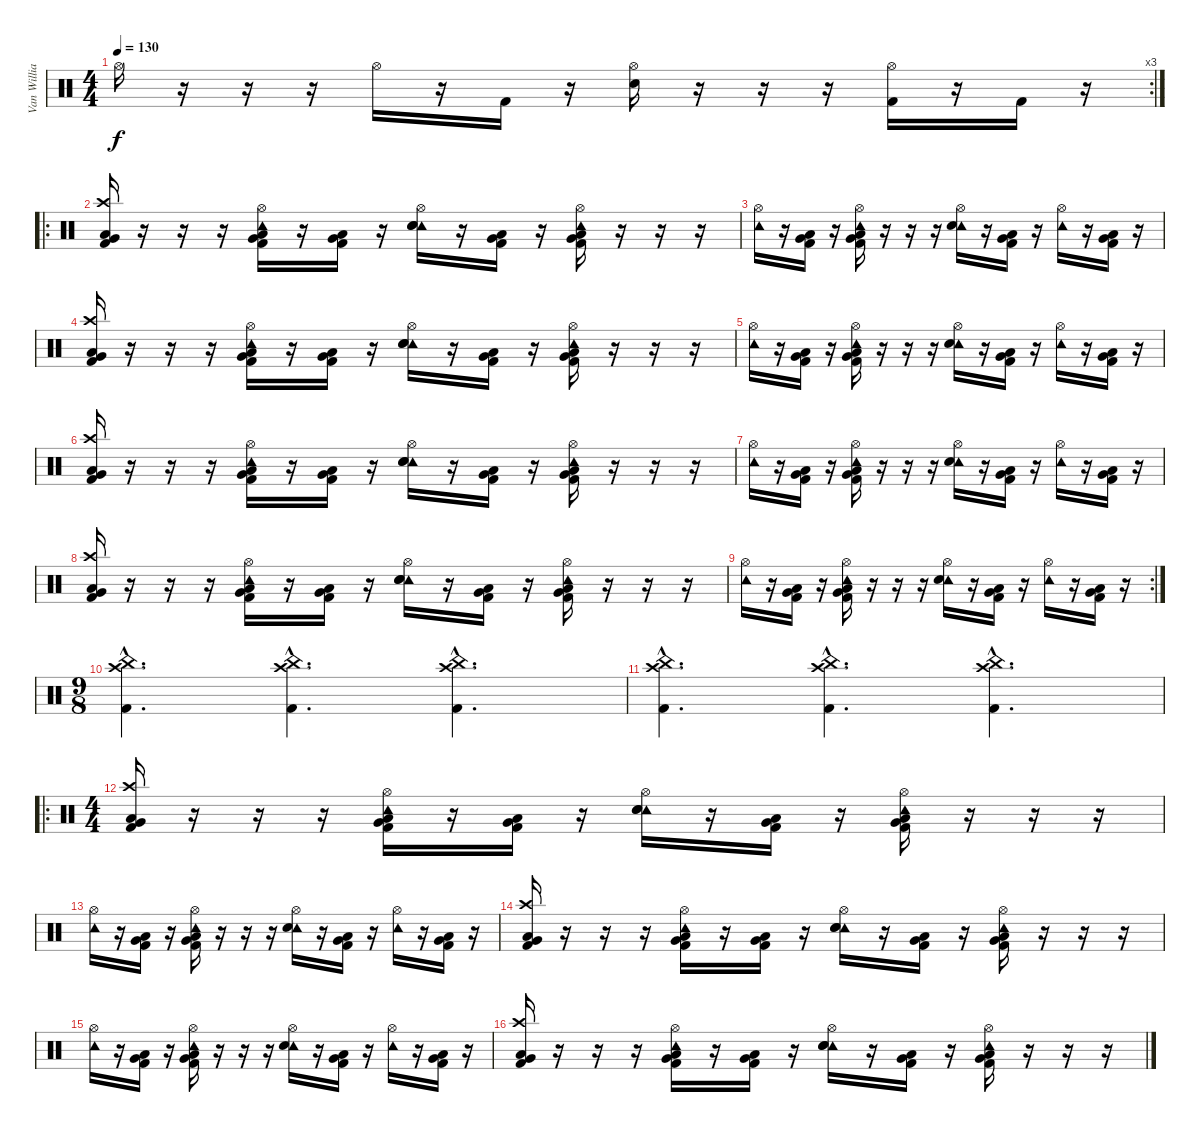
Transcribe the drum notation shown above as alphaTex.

\track ("Van Williams" "Van Willia") {instrument percussion}
\staff {score}
\articulation defaults
\rc 3
\ts (4 4)
\tempo 130
\clef neutral
\ks c "Hi-Hat (open)".16{dy f}
r.16 r.16 r.16 "Hi-Hat (open)".16 r.16 "Kick (hit) 2".16 r.16 ("Hi-Hat (open)" "Electric Snare (hit)").16 r.16 r.16 r.16 ("Hi-Hat (open)" "Kick (hit) 2").16 r.16 "Kick (hit) 2".16 r.16 |
\ro
("Crash high (hit)" "Kick (hit) 2" "Very Low Tom (hit)" "Low Floor Tom (hit)").16 r.16 r.16 r.16 ("Tambourine (hit)" "Hi-Hat (open)" "Kick (hit) 2" "Very Low Tom (hit)" "Low Floor Tom (hit)").16 r.16 ("Kick (hit) 2" "Very Low Tom (hit)" "Low Floor Tom (hit)").16 r.16 ("Tambourine (hit)" "Hi-Hat (open)" "Electric Snare (hit)" "Electric Snare (hit)").16 r.16 ("Kick (hit) 2" "Very Low Tom (hit)" "Low Floor Tom (hit)").16 r.16 ("Tambourine (hit)" "Hi-Hat (open)" "Kick (hit) 2" "Very Low Tom (hit)" "Low Floor Tom (hit)").16 r.16 r.16 r.16 |
("Tambourine (hit)" "Hi-Hat (open)").16 r.16 ("Kick (hit) 2" "Very Low Tom (hit)" "Low Floor Tom (hit)").16 r.16 ("Tambourine (hit)" "Hi-Hat (open)" "Kick (hit) 2" "Very Low Tom (hit)" "Low Floor Tom (hit)").16 r.16 r.16 r.16 ("Tambourine (hit)" "Hi-Hat (open)" "Electric Snare (hit)").16 r.16 ("Kick (hit) 2" "Very Low Tom (hit)" "Low Floor Tom (hit)").16 r.16 ("Tambourine (hit)" "Hi-Hat (open)").16 r.16 ("Kick (hit) 2" "Very Low Tom (hit)" "Low Floor Tom (hit)").16 r.16 |
("Crash high (hit)" "Kick (hit) 2" "Very Low Tom (hit)" "Low Floor Tom (hit)").16 r.16 r.16 r.16 ("Tambourine (hit)" "Hi-Hat (open)" "Kick (hit) 2" "Very Low Tom (hit)" "Low Floor Tom (hit)").16 r.16 ("Kick (hit) 2" "Very Low Tom (hit)" "Low Floor Tom (hit)").16 r.16 ("Tambourine (hit)" "Hi-Hat (open)" "Electric Snare (hit)" "Electric Snare (hit)").16 r.16 ("Kick (hit) 2" "Very Low Tom (hit)" "Low Floor Tom (hit)").16 r.16 ("Tambourine (hit)" "Hi-Hat (open)" "Kick (hit) 2" "Very Low Tom (hit)" "Low Floor Tom (hit)").16 r.16 r.16 r.16 |
("Tambourine (hit)" "Hi-Hat (open)").16 r.16 ("Kick (hit) 2" "Very Low Tom (hit)" "Low Floor Tom (hit)").16 r.16 ("Tambourine (hit)" "Hi-Hat (open)" "Kick (hit) 2" "Very Low Tom (hit)" "Low Floor Tom (hit)").16 r.16 r.16 r.16 ("Tambourine (hit)" "Hi-Hat (open)" "Electric Snare (hit)").16 r.16 ("Kick (hit) 2" "Very Low Tom (hit)" "Low Floor Tom (hit)").16 r.16 ("Tambourine (hit)" "Hi-Hat (open)").16 r.16 ("Kick (hit) 2" "Very Low Tom (hit)" "Low Floor Tom (hit)").16 r.16 |
("Crash high (hit)" "Kick (hit) 2" "Very Low Tom (hit)" "Low Floor Tom (hit)").16 r.16 r.16 r.16 ("Tambourine (hit)" "Hi-Hat (open)" "Kick (hit) 2" "Very Low Tom (hit)" "Low Floor Tom (hit)").16 r.16 ("Kick (hit) 2" "Very Low Tom (hit)" "Low Floor Tom (hit)").16 r.16 ("Tambourine (hit)" "Hi-Hat (open)" "Electric Snare (hit)" "Electric Snare (hit)").16 r.16 ("Kick (hit) 2" "Very Low Tom (hit)" "Low Floor Tom (hit)").16 r.16 ("Tambourine (hit)" "Hi-Hat (open)" "Kick (hit) 2" "Very Low Tom (hit)" "Low Floor Tom (hit)").16 r.16 r.16 r.16 |
("Tambourine (hit)" "Hi-Hat (open)").16 r.16 ("Kick (hit) 2" "Very Low Tom (hit)" "Low Floor Tom (hit)").16 r.16 ("Tambourine (hit)" "Hi-Hat (open)" "Kick (hit) 2" "Very Low Tom (hit)" "Low Floor Tom (hit)").16 r.16 r.16 r.16 ("Tambourine (hit)" "Hi-Hat (open)" "Electric Snare (hit)").16 r.16 ("Kick (hit) 2" "Very Low Tom (hit)" "Low Floor Tom (hit)").16 r.16 ("Tambourine (hit)" "Hi-Hat (open)").16 r.16 ("Kick (hit) 2" "Very Low Tom (hit)" "Low Floor Tom (hit)").16 r.16 |
("Crash high (hit)" "Kick (hit) 2" "Very Low Tom (hit)" "Low Floor Tom (hit)").16 r.16 r.16 r.16 ("Tambourine (hit)" "Hi-Hat (open)" "Kick (hit) 2" "Very Low Tom (hit)" "Low Floor Tom (hit)").16 r.16 ("Kick (hit) 2" "Very Low Tom (hit)" "Low Floor Tom (hit)").16 r.16 ("Tambourine (hit)" "Hi-Hat (open)" "Electric Snare (hit)" "Electric Snare (hit)").16 r.16 ("Kick (hit) 2" "Very Low Tom (hit)" "Low Floor Tom (hit)").16 r.16 ("Tambourine (hit)" "Hi-Hat (open)" "Kick (hit) 2" "Very Low Tom (hit)" "Low Floor Tom (hit)").16 r.16 r.16 r.16 |
\rc 2
("Tambourine (hit)" "Hi-Hat (open)").16 r.16 ("Kick (hit) 2" "Very Low Tom (hit)" "Low Floor Tom (hit)").16 r.16 ("Tambourine (hit)" "Hi-Hat (open)" "Kick (hit) 2" "Very Low Tom (hit)" "Low Floor Tom (hit)").16 r.16 r.16 r.16 ("Tambourine (hit)" "Hi-Hat (open)" "Electric Snare (hit)").16 r.16 ("Kick (hit) 2" "Very Low Tom (hit)" "Low Floor Tom (hit)").16 r.16 ("Tambourine (hit)" "Hi-Hat (open)").16 r.16 ("Kick (hit) 2" "Very Low Tom (hit)" "Low Floor Tom (hit)").16 r.16 |
\ts (9 8)
("China (hit)"{hac} "Crash high (hit)"{hac} "Kick (hit) 2"{hac}).4{d} ("China (hit)"{hac} "Crash high (hit)"{hac} "Kick (hit) 2"{hac}).4{d} ("China (hit)"{hac} "Crash high (hit)"{hac} "Kick (hit) 2"{hac}).4{d} |
("China (hit)"{hac} "Crash high (hit)"{hac} "Kick (hit) 2"{hac}).4{d} ("China (hit)"{hac} "Crash high (hit)"{hac} "Kick (hit) 2"{hac}).4{d} ("China (hit)"{hac} "Crash high (hit)"{hac} "Kick (hit) 2"{hac}).4{d} |
\ro
\ts (4 4)
("Crash high (hit)" "Kick (hit) 2" "Very Low Tom (hit)" "Low Floor Tom (hit)").16 r.16 r.16 r.16 ("Tambourine (hit)" "Hi-Hat (open)" "Kick (hit) 2" "Very Low Tom (hit)" "Low Floor Tom (hit)").16 r.16 ("Kick (hit) 2" "Very Low Tom (hit)" "Low Floor Tom (hit)").16 r.16 ("Tambourine (hit)" "Hi-Hat (open)" "Electric Snare (hit)" "Electric Snare (hit)").16 r.16 ("Kick (hit) 2" "Very Low Tom (hit)" "Low Floor Tom (hit)").16 r.16 ("Tambourine (hit)" "Hi-Hat (open)" "Kick (hit) 2" "Very Low Tom (hit)" "Low Floor Tom (hit)").16 r.16 r.16 r.16 |
("Tambourine (hit)" "Hi-Hat (open)").16 r.16 ("Kick (hit) 2" "Very Low Tom (hit)" "Low Floor Tom (hit)").16 r.16 ("Tambourine (hit)" "Hi-Hat (open)" "Kick (hit) 2" "Very Low Tom (hit)" "Low Floor Tom (hit)").16 r.16 r.16 r.16 ("Tambourine (hit)" "Hi-Hat (open)" "Electric Snare (hit)").16 r.16 ("Kick (hit) 2" "Very Low Tom (hit)" "Low Floor Tom (hit)").16 r.16 ("Tambourine (hit)" "Hi-Hat (open)").16 r.16 ("Kick (hit) 2" "Very Low Tom (hit)" "Low Floor Tom (hit)").16 r.16 |
("Crash high (hit)" "Kick (hit) 2" "Very Low Tom (hit)" "Low Floor Tom (hit)").16 r.16 r.16 r.16 ("Tambourine (hit)" "Hi-Hat (open)" "Kick (hit) 2" "Very Low Tom (hit)" "Low Floor Tom (hit)").16 r.16 ("Kick (hit) 2" "Very Low Tom (hit)" "Low Floor Tom (hit)").16 r.16 ("Tambourine (hit)" "Hi-Hat (open)" "Electric Snare (hit)" "Electric Snare (hit)").16 r.16 ("Kick (hit) 2" "Very Low Tom (hit)" "Low Floor Tom (hit)").16 r.16 ("Tambourine (hit)" "Hi-Hat (open)" "Kick (hit) 2" "Very Low Tom (hit)" "Low Floor Tom (hit)").16 r.16 r.16 r.16 |
("Tambourine (hit)" "Hi-Hat (open)").16 r.16 ("Kick (hit) 2" "Very Low Tom (hit)" "Low Floor Tom (hit)").16 r.16 ("Tambourine (hit)" "Hi-Hat (open)" "Kick (hit) 2" "Very Low Tom (hit)" "Low Floor Tom (hit)").16 r.16 r.16 r.16 ("Tambourine (hit)" "Hi-Hat (open)" "Electric Snare (hit)").16 r.16 ("Kick (hit) 2" "Very Low Tom (hit)" "Low Floor Tom (hit)").16 r.16 ("Tambourine (hit)" "Hi-Hat (open)").16 r.16 ("Kick (hit) 2" "Very Low Tom (hit)" "Low Floor Tom (hit)").16 r.16 |
("Crash high (hit)" "Kick (hit) 2" "Very Low Tom (hit)" "Low Floor Tom (hit)").16 r.16 r.16 r.16 ("Tambourine (hit)" "Hi-Hat (open)" "Kick (hit) 2" "Very Low Tom (hit)" "Low Floor Tom (hit)").16 r.16 ("Kick (hit) 2" "Very Low Tom (hit)" "Low Floor Tom (hit)").16 r.16 ("Tambourine (hit)" "Hi-Hat (open)" "Electric Snare (hit)" "Electric Snare (hit)").16 r.16 ("Kick (hit) 2" "Very Low Tom (hit)" "Low Floor Tom (hit)").16 r.16 ("Tambourine (hit)" "Hi-Hat (open)" "Kick (hit) 2" "Very Low Tom (hit)" "Low Floor Tom (hit)").16 r.16 r.16 r.16
